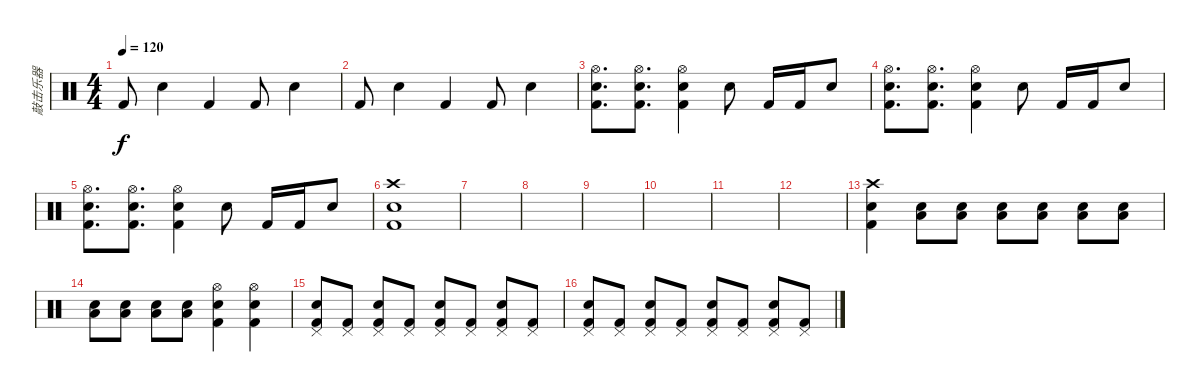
\track ("敲击乐器" "敲击乐器") {instrument percussion}
\staff {score}
\articulation defaults
\ts (4 4)
\tempo 120
\clef neutral
\ks c "Kick (hit) 2".8{dy f} "Snare (hit) 2".4 "Kick (hit) 2".4 "Kick (hit) 2".8 "Snare (hit) 2".4
|
"Kick (hit) 2".8 "Snare (hit) 2".4 "Kick (hit) 2".4 "Kick (hit) 2".8 "Snare (hit) 2".4 |
("Hi-Hat (open)" "Snare (hit) 2" "Kick (hit) 2").8{d} ("Hi-Hat (open)" "Snare (hit) 2" "Kick (hit) 2").8{d} ("Hi-Hat (open)" "Snare (hit) 2" "Kick (hit) 2").4 "Snare (hit) 2".8 "Kick (hit) 2".16 "Kick (hit) 2".16 "Snare (hit) 2".8 |
("Hi-Hat (open)" "Snare (hit) 2" "Kick (hit) 2").8{d} ("Hi-Hat (open)" "Snare (hit) 2" "Kick (hit) 2").8{d} ("Hi-Hat (open)" "Snare (hit) 2" "Kick (hit) 2").4 "Snare (hit) 2".8 "Kick (hit) 2".16 "Kick (hit) 2".16 "Snare (hit) 2".8 |
("Hi-Hat (open)" "Snare (hit) 2" "Kick (hit) 2").8{d} ("Hi-Hat (open)" "Snare (hit) 2" "Kick (hit) 2").8{d} ("Hi-Hat (open)" "Snare (hit) 2" "Kick (hit) 2").4 "Snare (hit) 2".8 "Kick (hit) 2".16 "Kick (hit) 2".16 "Snare (hit) 2".8 |
("Crash high (hit)" "Kick (hit) 2" "Snare (hit) 2").1 |
|
|
|
|
|
|
("Crash high (hit)" "Snare (hit) 2" "Kick (hit) 2").4 ("Snare (hit) 2" "Low Floor Tom (hit)").8 ("Snare (hit) 2" "Low Floor Tom (hit)").8 ("Snare (hit) 2" "Low Floor Tom (hit)").8 ("Snare (hit) 2" "Low Floor Tom (hit)").8 ("Snare (hit) 2" "Low Floor Tom (hit)").8 ("Snare (hit) 2" "Low Floor Tom (hit)").8 |
("Snare (hit) 2" "Low Floor Tom (hit)").8 ("Snare (hit) 2" "Low Floor Tom (hit)").8 ("Snare (hit) 2" "Low Floor Tom (hit)").8 ("Snare (hit) 2" "Low Floor Tom (hit)").8 ("Hi-Hat (open)" "Snare (hit) 2" "Kick (hit) 2").4 ("Hi-Hat (open)" "Snare (hit) 2" "Kick (hit) 2").4 |
("Pedal Hi-Hat (hit)" "Snare (hit) 2" "Kick (hit) 2").8 ("Pedal Hi-Hat (hit)" "Kick (hit) 2").8 ("Pedal Hi-Hat (hit)" "Snare (hit) 2" "Kick (hit) 2").8 ("Pedal Hi-Hat (hit)" "Kick (hit) 2").8 ("Pedal Hi-Hat (hit)" "Snare (hit) 2" "Kick (hit) 2").8 ("Pedal Hi-Hat (hit)" "Kick (hit) 2").8 ("Pedal Hi-Hat (hit)" "Snare (hit) 2" "Kick (hit) 2").8 ("Pedal Hi-Hat (hit)" "Kick (hit) 2").8 |
("Pedal Hi-Hat (hit)" "Snare (hit) 2" "Kick (hit) 2").8 ("Pedal Hi-Hat (hit)" "Kick (hit) 2").8 ("Pedal Hi-Hat (hit)" "Snare (hit) 2" "Kick (hit) 2").8 ("Pedal Hi-Hat (hit)" "Kick (hit) 2").8 ("Pedal Hi-Hat (hit)" "Snare (hit) 2" "Kick (hit) 2").8 ("Pedal Hi-Hat (hit)" "Kick (hit) 2").8 ("Pedal Hi-Hat (hit)" "Snare (hit) 2" "Kick (hit) 2").8 ("Pedal Hi-Hat (hit)" "Kick (hit) 2").8
